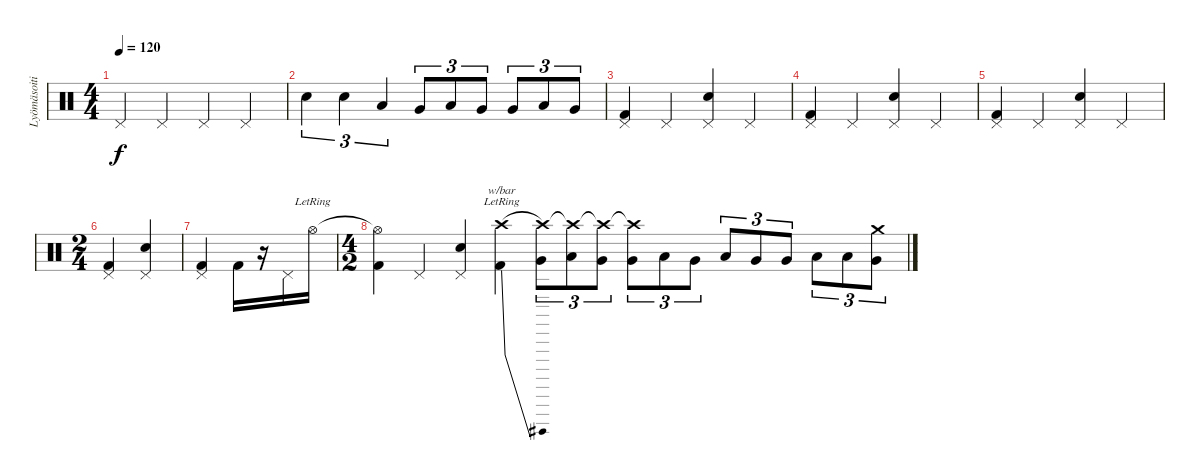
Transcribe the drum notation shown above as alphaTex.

\track ("Lyömäsoitin" "Lyömäsoiti") {instrument percussion}
\staff {score}
\articulation defaults
\ts (4 4)
\tempo 120
\clef neutral
\ks c "Pedal Hi-Hat (hit)".4{dy f} "Pedal Hi-Hat (hit)".4 "Pedal Hi-Hat (hit)".4 "Pedal Hi-Hat (hit)".4
|
"Electric Snare (hit)".4{tu (3 2)} "Electric Snare (hit)".4{tu (3 2)} "Low Floor Tom (hit)".4{tu (3 2)} "Very Low Tom (hit)".8{tu (3 2)} "Low Tom (hit)".8{tu (3 2)} "Very Low Tom (hit)".8{tu (3 2)} "Very Low Tom (hit)".8{tu (3 2)} "Low Tom (hit)".8{tu (3 2)} "Very Low Tom (hit)".8{tu (3 2)} |
("Pedal Hi-Hat (hit)" "Kick (hit) 2").4 "Pedal Hi-Hat (hit)".4 ("Pedal Hi-Hat (hit)" "Electric Snare (hit)").4 "Pedal Hi-Hat (hit)".4 |
("Pedal Hi-Hat (hit)" "Kick (hit) 2").4 "Pedal Hi-Hat (hit)".4 ("Pedal Hi-Hat (hit)" "Electric Snare (hit)").4 "Pedal Hi-Hat (hit)".4 |
("Pedal Hi-Hat (hit)" "Kick (hit) 2").4 "Pedal Hi-Hat (hit)".4 ("Pedal Hi-Hat (hit)" "Electric Snare (hit)").4 "Pedal Hi-Hat (hit)".4 |
\ts (2 4)
("Pedal Hi-Hat (hit)" "Kick (hit) 2").4 ("Pedal Hi-Hat (hit)" "Electric Snare (hit)").4 |
("Pedal Hi-Hat (hit)" "Kick (hit) 2").4 "Kick (hit) 2".16 r.16 "Pedal Hi-Hat (hit)".16 "Hi-Hat (open)"{lr}.16 |
\ts (4 2)
("Hi-Hat (open)"{t} "Kick (hit) 2").4 "Pedal Hi-Hat (hit)".4 ("Pedal Hi-Hat (hit)" "Electric Snare (hit)").4 ("Crash high (hit)"{lr} "Kick (hit) 2").4{tbe (dive default 0 0 60 -4)} ("Crash high (hit)"{t} "Very Low Tom (hit)").8{tu (3 2)} ("Crash high (hit)"{t} "Low Tom (hit)").8{tu (3 2)} ("Crash high (hit)"{t} "Very Low Tom (hit)").8{tu (3 2)} ("Crash high (hit)"{t} "Very Low Tom (hit)").8{tu (3 2)} "Low Tom (hit)".8{tu (3 2)} "Very Low Tom (hit)".8{tu (3 2)} "Low Tom (hit)".8{tu (3 2)} "Very Low Tom (hit)".8{tu (3 2)} "Very Low Tom (hit)".8{tu (3 2)} "Low Tom (hit)".8{tu (3 2)} "Low Tom (hit)".8{tu (3 2)} ("Crash medium (hit)" "Very Low Tom (hit)").8{tu (3 2)}
